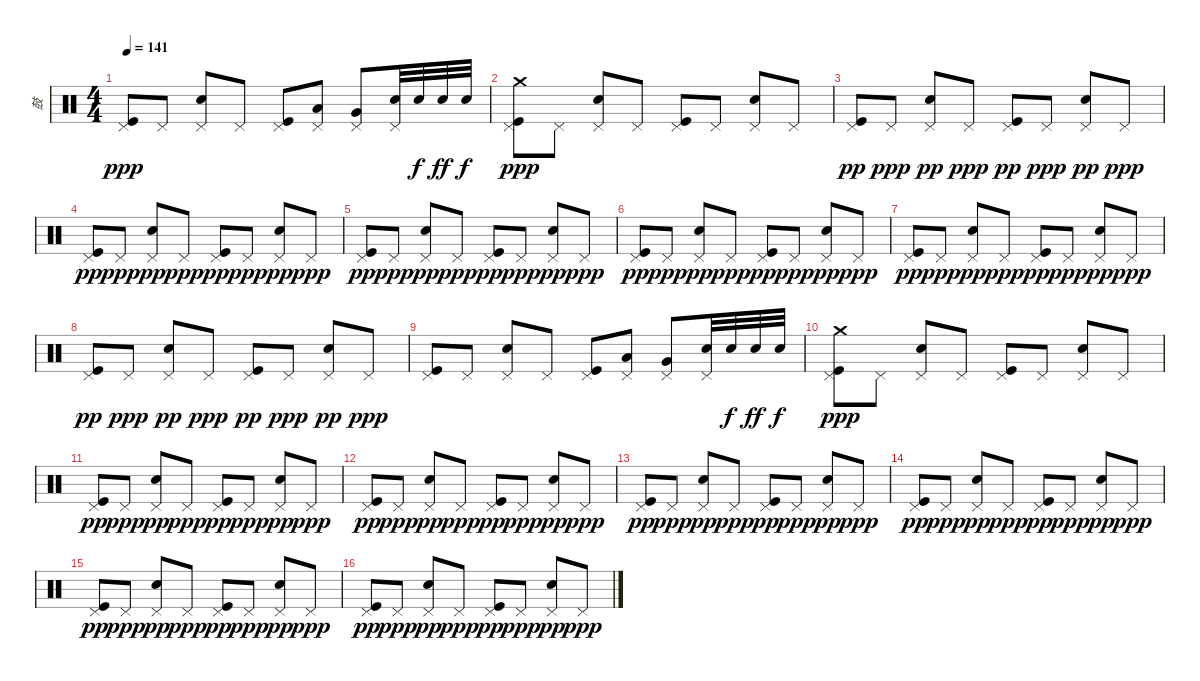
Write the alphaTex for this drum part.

\track ("鼓" "鼓") {instrument percussion}
\staff {score}
\articulation defaults
\ts (4 4)
\tempo 141
\clef neutral
\ks c
("Kick (hit)" "Pedal Hi-Hat (hit)").8{dy ppp} "Pedal Hi-Hat (hit)".8 ("Snare (hit) 2" "Pedal Hi-Hat (hit)").8 "Pedal Hi-Hat (hit)".8 ("Kick (hit)" "Pedal Hi-Hat (hit)").8 ("Low Tom (hit)" "Pedal Hi-Hat (hit)").8 ("Very Low Tom (hit)" "Pedal Hi-Hat (hit)").8 ("Snare (hit) 2" "Pedal Hi-Hat (hit)").32 "Snare (hit) 2".32{dy f} "Snare (hit) 2".32{dy ff} "Snare (hit) 2".32{dy f} |
("Crash medium (hit)" "Kick (hit)" "Pedal Hi-Hat (hit)").8{dy ppp} "Pedal Hi-Hat (hit)".8 ("Snare (hit) 2" "Pedal Hi-Hat (hit)").8 "Pedal Hi-Hat (hit)".8 ("Kick (hit)" "Pedal Hi-Hat (hit)").8 "Pedal Hi-Hat (hit)".8 ("Snare (hit) 2" "Pedal Hi-Hat (hit)").8 "Pedal Hi-Hat (hit)".8 |
("Kick (hit)" "Pedal Hi-Hat (hit)").8{dy pp} "Pedal Hi-Hat (hit)".8{dy ppp} ("Snare (hit) 2" "Pedal Hi-Hat (hit)").8{dy pp} "Pedal Hi-Hat (hit)".8{dy ppp} ("Kick (hit)" "Pedal Hi-Hat (hit)").8{dy pp} "Pedal Hi-Hat (hit)".8{dy ppp} ("Snare (hit) 2" "Pedal Hi-Hat (hit)").8{dy pp} "Pedal Hi-Hat (hit)".8{dy ppp} |
("Kick (hit)" "Pedal Hi-Hat (hit)").8{dy pp} "Pedal Hi-Hat (hit)".8{dy ppp} ("Snare (hit) 2" "Pedal Hi-Hat (hit)").8{dy pp} "Pedal Hi-Hat (hit)".8{dy ppp} ("Kick (hit)" "Pedal Hi-Hat (hit)").8{dy pp} "Pedal Hi-Hat (hit)".8{dy ppp} ("Snare (hit) 2" "Pedal Hi-Hat (hit)").8{dy pp} "Pedal Hi-Hat (hit)".8{dy ppp} |
("Kick (hit)" "Pedal Hi-Hat (hit)").8{dy pp} "Pedal Hi-Hat (hit)".8{dy ppp} ("Snare (hit) 2" "Pedal Hi-Hat (hit)").8{dy pp} "Pedal Hi-Hat (hit)".8{dy ppp} ("Kick (hit)" "Pedal Hi-Hat (hit)").8{dy pp} "Pedal Hi-Hat (hit)".8{dy ppp} ("Snare (hit) 2" "Pedal Hi-Hat (hit)").8{dy pp} "Pedal Hi-Hat (hit)".8{dy ppp} |
("Kick (hit)" "Pedal Hi-Hat (hit)").8{dy pp} "Pedal Hi-Hat (hit)".8{dy ppp} ("Snare (hit) 2" "Pedal Hi-Hat (hit)").8{dy pp} "Pedal Hi-Hat (hit)".8{dy ppp} ("Kick (hit)" "Pedal Hi-Hat (hit)").8{dy pp} "Pedal Hi-Hat (hit)".8{dy ppp} ("Snare (hit) 2" "Pedal Hi-Hat (hit)").8{dy pp} "Pedal Hi-Hat (hit)".8{dy ppp} |
("Kick (hit)" "Pedal Hi-Hat (hit)").8{dy pp} "Pedal Hi-Hat (hit)".8{dy ppp} ("Snare (hit) 2" "Pedal Hi-Hat (hit)").8{dy pp} "Pedal Hi-Hat (hit)".8{dy ppp} ("Kick (hit)" "Pedal Hi-Hat (hit)").8{dy pp} "Pedal Hi-Hat (hit)".8{dy ppp} ("Snare (hit) 2" "Pedal Hi-Hat (hit)").8{dy pp} "Pedal Hi-Hat (hit)".8{dy ppp} |
("Kick (hit)" "Pedal Hi-Hat (hit)").8{dy pp} "Pedal Hi-Hat (hit)".8{dy ppp} ("Snare (hit) 2" "Pedal Hi-Hat (hit)").8{dy pp} "Pedal Hi-Hat (hit)".8{dy ppp} ("Kick (hit)" "Pedal Hi-Hat (hit)").8{dy pp} "Pedal Hi-Hat (hit)".8{dy ppp} ("Snare (hit) 2" "Pedal Hi-Hat (hit)").8{dy pp} "Pedal Hi-Hat (hit)".8{dy ppp} |
("Kick (hit)" "Pedal Hi-Hat (hit)").8 "Pedal Hi-Hat (hit)".8 ("Snare (hit) 2" "Pedal Hi-Hat (hit)").8 "Pedal Hi-Hat (hit)".8 ("Kick (hit)" "Pedal Hi-Hat (hit)").8 ("Low Tom (hit)" "Pedal Hi-Hat (hit)").8 ("Very Low Tom (hit)" "Pedal Hi-Hat (hit)").8 ("Snare (hit) 2" "Pedal Hi-Hat (hit)").32 "Snare (hit) 2".32{dy f} "Snare (hit) 2".32{dy ff} "Snare (hit) 2".32{dy f} |
("Crash medium (hit)" "Kick (hit)" "Pedal Hi-Hat (hit)").8{dy ppp} "Pedal Hi-Hat (hit)".8 ("Snare (hit) 2" "Pedal Hi-Hat (hit)").8 "Pedal Hi-Hat (hit)".8 ("Kick (hit)" "Pedal Hi-Hat (hit)").8 "Pedal Hi-Hat (hit)".8 ("Snare (hit) 2" "Pedal Hi-Hat (hit)").8 "Pedal Hi-Hat (hit)".8 |
("Kick (hit)" "Pedal Hi-Hat (hit)").8{dy pp} "Pedal Hi-Hat (hit)".8{dy ppp} ("Snare (hit) 2" "Pedal Hi-Hat (hit)").8{dy pp} "Pedal Hi-Hat (hit)".8{dy ppp} ("Kick (hit)" "Pedal Hi-Hat (hit)").8{dy pp} "Pedal Hi-Hat (hit)".8{dy ppp} ("Snare (hit) 2" "Pedal Hi-Hat (hit)").8{dy pp} "Pedal Hi-Hat (hit)".8{dy ppp} |
("Kick (hit)" "Pedal Hi-Hat (hit)").8{dy pp} "Pedal Hi-Hat (hit)".8{dy ppp} ("Snare (hit) 2" "Pedal Hi-Hat (hit)").8{dy pp} "Pedal Hi-Hat (hit)".8{dy ppp} ("Kick (hit)" "Pedal Hi-Hat (hit)").8{dy pp} "Pedal Hi-Hat (hit)".8{dy ppp} ("Snare (hit) 2" "Pedal Hi-Hat (hit)").8{dy pp} "Pedal Hi-Hat (hit)".8{dy ppp} |
("Kick (hit)" "Pedal Hi-Hat (hit)").8{dy pp} "Pedal Hi-Hat (hit)".8{dy ppp} ("Snare (hit) 2" "Pedal Hi-Hat (hit)").8{dy pp} "Pedal Hi-Hat (hit)".8{dy ppp} ("Kick (hit)" "Pedal Hi-Hat (hit)").8{dy pp} "Pedal Hi-Hat (hit)".8{dy ppp} ("Snare (hit) 2" "Pedal Hi-Hat (hit)").8{dy pp} "Pedal Hi-Hat (hit)".8{dy ppp} |
("Kick (hit)" "Pedal Hi-Hat (hit)").8{dy pp} "Pedal Hi-Hat (hit)".8{dy ppp} ("Snare (hit) 2" "Pedal Hi-Hat (hit)").8{dy pp} "Pedal Hi-Hat (hit)".8{dy ppp} ("Kick (hit)" "Pedal Hi-Hat (hit)").8{dy pp} "Pedal Hi-Hat (hit)".8{dy ppp} ("Snare (hit) 2" "Pedal Hi-Hat (hit)").8{dy pp} "Pedal Hi-Hat (hit)".8{dy ppp} |
("Kick (hit)" "Pedal Hi-Hat (hit)").8{dy pp} "Pedal Hi-Hat (hit)".8{dy ppp} ("Snare (hit) 2" "Pedal Hi-Hat (hit)").8{dy pp} "Pedal Hi-Hat (hit)".8{dy ppp} ("Kick (hit)" "Pedal Hi-Hat (hit)").8{dy pp} "Pedal Hi-Hat (hit)".8{dy ppp} ("Snare (hit) 2" "Pedal Hi-Hat (hit)").8{dy pp} "Pedal Hi-Hat (hit)".8{dy ppp} |
("Kick (hit)" "Pedal Hi-Hat (hit)").8{dy pp} "Pedal Hi-Hat (hit)".8{dy ppp} ("Snare (hit) 2" "Pedal Hi-Hat (hit)").8{dy pp} "Pedal Hi-Hat (hit)".8{dy ppp} ("Kick (hit)" "Pedal Hi-Hat (hit)").8{dy pp} "Pedal Hi-Hat (hit)".8{dy ppp} ("Snare (hit) 2" "Pedal Hi-Hat (hit)").8{dy pp} "Pedal Hi-Hat (hit)".8{dy ppp}
